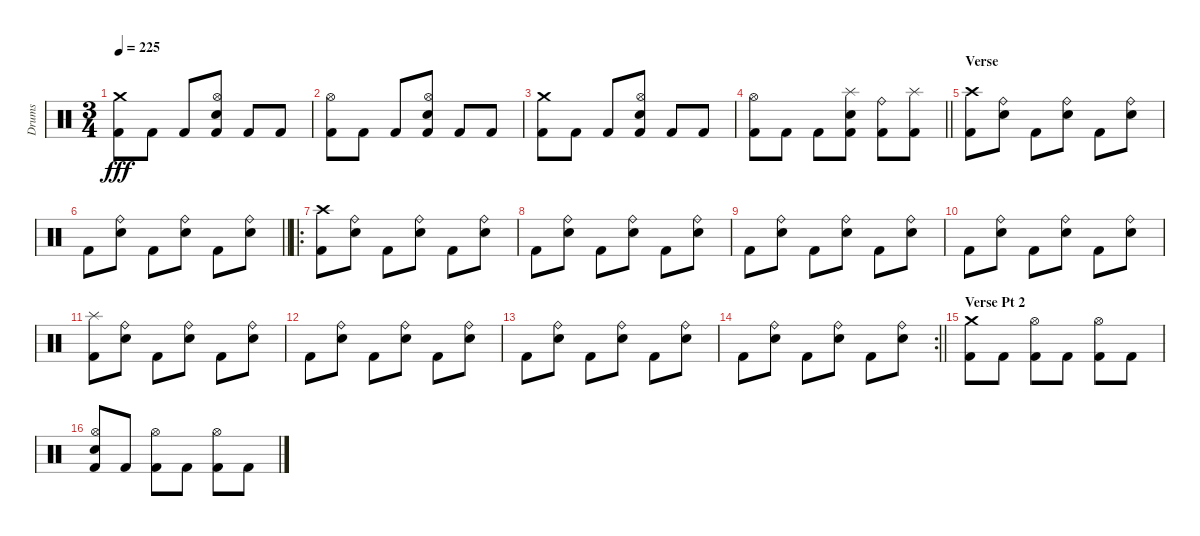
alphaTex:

\track ("Drums" "Drums") {instrument percussion}
\staff {score}
\articulation defaults
\ts (3 4)
\tempo 225
\clef neutral
\ks c
("Crash medium (hit)" "Kick (hit) 2").8{dy fff} "Kick (hit) 2".8 "Kick (hit) 2".8 ("Hi-Hat (open)" "Electric Snare (hit)" "Kick (hit) 2").8 "Kick (hit) 2".8 "Kick (hit) 2".8 |
("Hi-Hat (open)" "Kick (hit) 2").8 "Kick (hit) 2".8 "Kick (hit) 2".8 ("Hi-Hat (open)" "Electric Snare (hit)" "Kick (hit) 2").8 "Kick (hit) 2".8 "Kick (hit) 2".8 |
("Crash medium (hit)" "Kick (hit) 2").8 "Kick (hit) 2".8 "Kick (hit) 2".8 ("Hi-Hat (open)" "Electric Snare (hit)" "Kick (hit) 2").8 "Kick (hit) 2".8 "Kick (hit) 2".8 |
\barLineRight lightlight
("Hi-Hat (open)" "Kick (hit) 2").8 "Kick (hit) 2".8 "Kick (hit) 2".8 ("Splash (hit)" "Electric Snare (hit)" "Kick (hit) 2").8 ("Ride (bell)" "Kick (hit) 2").8 ("Splash (hit)" "Kick (hit) 2").8 |
\section ("" "Verse")
("Crash high (hit)" "Kick (hit) 2").8 ("Ride (bell)" "Electric Snare (hit)").8 "Kick (hit) 2".8 ("Ride (bell)" "Electric Snare (hit)").8 "Kick (hit) 2".8 ("Ride (bell)" "Electric Snare (hit)").8 |
\barLineRight lightlight "Kick (hit) 2".8
("Ride (bell)" "Electric Snare (hit)").8 "Kick (hit) 2".8 ("Ride (bell)" "Electric Snare (hit)").8 "Kick (hit) 2".8 ("Ride (bell)" "Electric Snare (hit)").8 |
\ro
("Crash high (hit)" "Kick (hit) 2").8 ("Ride (bell)" "Electric Snare (hit)").8 "Kick (hit) 2".8 ("Ride (bell)" "Electric Snare (hit)").8 "Kick (hit) 2".8 ("Ride (bell)" "Electric Snare (hit)").8 |
"Kick (hit) 2".8 ("Ride (bell)" "Electric Snare (hit)").8 "Kick (hit) 2".8 ("Ride (bell)" "Electric Snare (hit)").8 "Kick (hit) 2".8 ("Ride (bell)" "Electric Snare (hit)").8 |
"Kick (hit) 2".8 ("Ride (bell)" "Electric Snare (hit)").8 "Kick (hit) 2".8 ("Ride (bell)" "Electric Snare (hit)").8 "Kick (hit) 2".8 ("Ride (bell)" "Electric Snare (hit)").8 |
"Kick (hit) 2".8 ("Ride (bell)" "Electric Snare (hit)").8 "Kick (hit) 2".8 ("Ride (bell)" "Electric Snare (hit)").8 "Kick (hit) 2".8 ("Ride (bell)" "Electric Snare (hit)").8 |
("Splash (hit)" "Kick (hit) 2").8 ("Ride (bell)" "Electric Snare (hit)").8 "Kick (hit) 2".8 ("Ride (bell)" "Electric Snare (hit)").8 "Kick (hit) 2".8 ("Ride (bell)" "Electric Snare (hit)").8 |
"Kick (hit) 2".8 ("Ride (bell)" "Electric Snare (hit)").8 "Kick (hit) 2".8 ("Ride (bell)" "Electric Snare (hit)").8 "Kick (hit) 2".8 ("Ride (bell)" "Electric Snare (hit)").8 |
"Kick (hit) 2".8 ("Ride (bell)" "Electric Snare (hit)").8 "Kick (hit) 2".8 ("Ride (bell)" "Electric Snare (hit)").8 "Kick (hit) 2".8 ("Ride (bell)" "Electric Snare (hit)").8 |
\rc 2
\barLineRight lightlight "Kick (hit) 2".8
("Ride (bell)" "Electric Snare (hit)").8 "Kick (hit) 2".8 ("Ride (bell)" "Electric Snare (hit)").8 "Kick (hit) 2".8 ("Ride (bell)" "Electric Snare (hit)").8 |
\section ("" "Verse Pt 2")
("Crash medium (hit)" "Kick (hit) 2").8 "Kick (hit) 2".8 ("Hi-Hat (open)" "Kick (hit) 2").8 "Kick (hit) 2".8 ("Hi-Hat (open)" "Kick (hit) 2").8 "Kick (hit) 2".8 |
("Hi-Hat (open)" "Electric Snare (hit)" "Kick (hit) 2").8 "Kick (hit) 2".8 ("Hi-Hat (open)" "Kick (hit) 2").8 "Kick (hit) 2".8 ("Hi-Hat (open)" "Kick (hit) 2").8 "Kick (hit) 2".8
